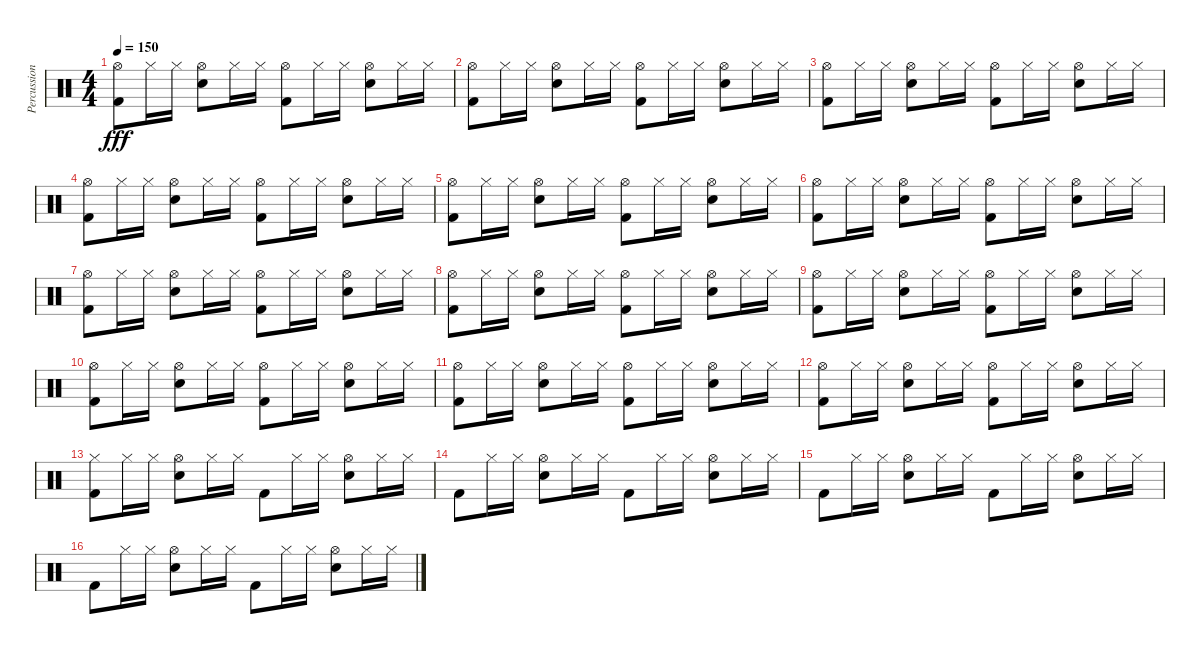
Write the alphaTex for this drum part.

\track ("Percussion" "Percussion") {instrument percussion}
\staff {score}
\articulation defaults
\ts (4 4)
\tempo 150
\clef neutral
\ks c
("Kick (hit) 2" "Hi-Hat (open)").8{dy fff} "Hi-Hat (closed)".16 "Hi-Hat (closed)".16 ("Snare (hit) 2" "Hi-Hat (open)").8 "Hi-Hat (closed)".16 "Hi-Hat (closed)".16 ("Kick (hit) 2" "Hi-Hat (open)").8 "Hi-Hat (closed)".16 "Hi-Hat (closed)".16 ("Snare (hit) 2" "Hi-Hat (open)").8 "Hi-Hat (closed)".16 "Hi-Hat (closed)".16 |
("Kick (hit) 2" "Hi-Hat (open)").8 "Hi-Hat (closed)".16 "Hi-Hat (closed)".16 ("Snare (hit) 2" "Hi-Hat (open)").8 "Hi-Hat (closed)".16 "Hi-Hat (closed)".16 ("Kick (hit) 2" "Hi-Hat (open)").8 "Hi-Hat (closed)".16 "Hi-Hat (closed)".16 ("Snare (hit) 2" "Hi-Hat (open)").8 "Hi-Hat (closed)".16 "Hi-Hat (closed)".16 |
("Kick (hit) 2" "Hi-Hat (open)").8 "Hi-Hat (closed)".16 "Hi-Hat (closed)".16 ("Snare (hit) 2" "Hi-Hat (open)").8 "Hi-Hat (closed)".16 "Hi-Hat (closed)".16 ("Kick (hit) 2" "Hi-Hat (open)").8 "Hi-Hat (closed)".16 "Hi-Hat (closed)".16 ("Snare (hit) 2" "Hi-Hat (open)").8 "Hi-Hat (closed)".16 "Hi-Hat (closed)".16 |
("Kick (hit) 2" "Hi-Hat (open)").8 "Hi-Hat (closed)".16 "Hi-Hat (closed)".16 ("Snare (hit) 2" "Hi-Hat (open)").8 "Hi-Hat (closed)".16 "Hi-Hat (closed)".16 ("Kick (hit) 2" "Hi-Hat (open)").8 "Hi-Hat (closed)".16 "Hi-Hat (closed)".16 ("Snare (hit) 2" "Hi-Hat (open)").8 "Hi-Hat (closed)".16 "Hi-Hat (closed)".16 |
("Kick (hit) 2" "Hi-Hat (open)").8 "Hi-Hat (closed)".16 "Hi-Hat (closed)".16 ("Snare (hit) 2" "Hi-Hat (open)").8 "Hi-Hat (closed)".16 "Hi-Hat (closed)".16 ("Kick (hit) 2" "Hi-Hat (open)").8 "Hi-Hat (closed)".16 "Hi-Hat (closed)".16 ("Snare (hit) 2" "Hi-Hat (open)").8 "Hi-Hat (closed)".16 "Hi-Hat (closed)".16 |
("Kick (hit) 2" "Hi-Hat (open)").8 "Hi-Hat (closed)".16 "Hi-Hat (closed)".16 ("Snare (hit) 2" "Hi-Hat (open)").8 "Hi-Hat (closed)".16 "Hi-Hat (closed)".16 ("Kick (hit) 2" "Hi-Hat (open)").8 "Hi-Hat (closed)".16 "Hi-Hat (closed)".16 ("Snare (hit) 2" "Hi-Hat (open)").8 "Hi-Hat (closed)".16 "Hi-Hat (closed)".16 |
("Kick (hit) 2" "Hi-Hat (open)").8 "Hi-Hat (closed)".16 "Hi-Hat (closed)".16 ("Snare (hit) 2" "Hi-Hat (open)").8 "Hi-Hat (closed)".16 "Hi-Hat (closed)".16 ("Kick (hit) 2" "Hi-Hat (open)").8 "Hi-Hat (closed)".16 "Hi-Hat (closed)".16 ("Snare (hit) 2" "Hi-Hat (open)").8 "Hi-Hat (closed)".16 "Hi-Hat (closed)".16 |
("Kick (hit) 2" "Hi-Hat (open)").8 "Hi-Hat (closed)".16 "Hi-Hat (closed)".16 ("Snare (hit) 2" "Hi-Hat (open)").8 "Hi-Hat (closed)".16 "Hi-Hat (closed)".16 ("Kick (hit) 2" "Hi-Hat (open)").8 "Hi-Hat (closed)".16 "Hi-Hat (closed)".16 ("Snare (hit) 2" "Hi-Hat (open)").8 "Hi-Hat (closed)".16 "Hi-Hat (closed)".16 |
("Kick (hit) 2" "Hi-Hat (open)").8 "Hi-Hat (closed)".16 "Hi-Hat (closed)".16 ("Snare (hit) 2" "Hi-Hat (open)").8 "Hi-Hat (closed)".16 "Hi-Hat (closed)".16 ("Kick (hit) 2" "Hi-Hat (open)").8 "Hi-Hat (closed)".16 "Hi-Hat (closed)".16 ("Snare (hit) 2" "Hi-Hat (open)").8 "Hi-Hat (closed)".16 "Hi-Hat (closed)".16 |
("Kick (hit) 2" "Hi-Hat (open)").8 "Hi-Hat (closed)".16 "Hi-Hat (closed)".16 ("Snare (hit) 2" "Hi-Hat (open)").8 "Hi-Hat (closed)".16 "Hi-Hat (closed)".16 ("Kick (hit) 2" "Hi-Hat (open)").8 "Hi-Hat (closed)".16 "Hi-Hat (closed)".16 ("Snare (hit) 2" "Hi-Hat (open)").8 "Hi-Hat (closed)".16 "Hi-Hat (closed)".16 |
("Kick (hit) 2" "Hi-Hat (open)").8 "Hi-Hat (closed)".16 "Hi-Hat (closed)".16 ("Snare (hit) 2" "Hi-Hat (open)").8 "Hi-Hat (closed)".16 "Hi-Hat (closed)".16 ("Kick (hit) 2" "Hi-Hat (open)").8 "Hi-Hat (closed)".16 "Hi-Hat (closed)".16 ("Snare (hit) 2" "Hi-Hat (open)").8 "Hi-Hat (closed)".16 "Hi-Hat (closed)".16 |
("Kick (hit) 2" "Hi-Hat (open)").8 "Hi-Hat (closed)".16 "Hi-Hat (closed)".16 ("Snare (hit) 2" "Hi-Hat (open)").8 "Hi-Hat (closed)".16 "Hi-Hat (closed)".16 ("Kick (hit) 2" "Hi-Hat (open)").8 "Hi-Hat (closed)".16 "Hi-Hat (closed)".16 ("Snare (hit) 2" "Hi-Hat (open)").8 "Hi-Hat (closed)".16 "Hi-Hat (closed)".16 |
("Kick (hit) 2" "Hi-Hat (closed)").8 "Hi-Hat (closed)".16 "Hi-Hat (closed)".16 ("Snare (hit) 2" "Hi-Hat (open)").8 "Hi-Hat (closed)".16 "Hi-Hat (closed)".16 "Kick (hit) 2".8 "Hi-Hat (closed)".16 "Hi-Hat (closed)".16 ("Snare (hit) 2" "Hi-Hat (open)").8 "Hi-Hat (closed)".16 "Hi-Hat (closed)".16 |
"Kick (hit) 2".8 "Hi-Hat (closed)".16 "Hi-Hat (closed)".16 ("Snare (hit) 2" "Hi-Hat (open)").8 "Hi-Hat (closed)".16 "Hi-Hat (closed)".16 "Kick (hit) 2".8 "Hi-Hat (closed)".16 "Hi-Hat (closed)".16 ("Snare (hit) 2" "Hi-Hat (open)").8 "Hi-Hat (closed)".16 "Hi-Hat (closed)".16 |
"Kick (hit) 2".8 "Hi-Hat (closed)".16 "Hi-Hat (closed)".16 ("Snare (hit) 2" "Hi-Hat (open)").8 "Hi-Hat (closed)".16 "Hi-Hat (closed)".16 "Kick (hit) 2".8 "Hi-Hat (closed)".16 "Hi-Hat (closed)".16 ("Snare (hit) 2" "Hi-Hat (open)").8 "Hi-Hat (closed)".16 "Hi-Hat (closed)".16 |
"Kick (hit) 2".8 "Hi-Hat (closed)".16 "Hi-Hat (closed)".16 ("Snare (hit) 2" "Hi-Hat (open)").8 "Hi-Hat (closed)".16 "Hi-Hat (closed)".16 "Kick (hit) 2".8 "Hi-Hat (closed)".16 "Hi-Hat (closed)".16 ("Snare (hit) 2" "Hi-Hat (open)").8 "Hi-Hat (closed)".16 "Hi-Hat (closed)".16
